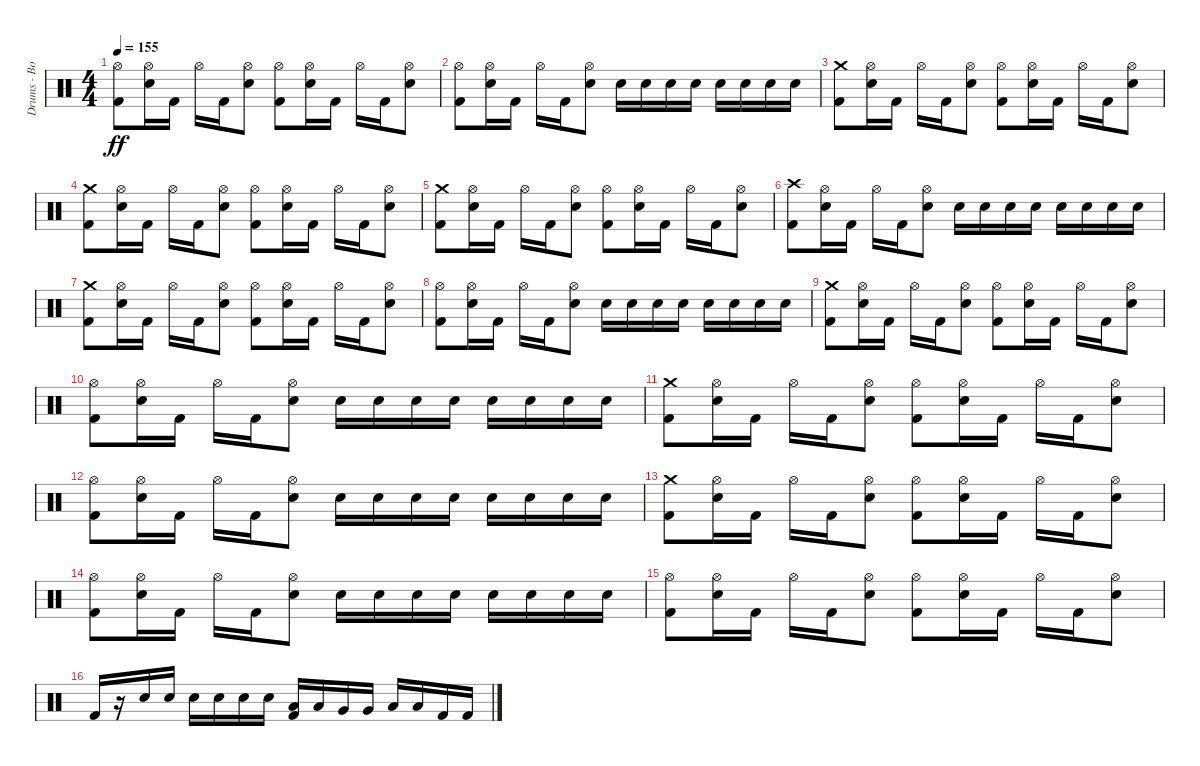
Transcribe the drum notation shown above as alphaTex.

\track ("Drums - Bobby Schayer" "Drums - Bo") {instrument percussion}
\staff {score}
\articulation defaults
\ts (4 4)
\tempo 155
\clef neutral
\ks c
("Kick (hit) 2" "Hi-Hat (open)").8{dy ff} ("Electric Snare (hit)" "Hi-Hat (open)").16 "Kick (hit) 2".16 "Hi-Hat (open)".16 "Kick (hit) 2".16 ("Electric Snare (hit)" "Hi-Hat (open)").8 ("Kick (hit) 2" "Hi-Hat (open)").8 ("Electric Snare (hit)" "Hi-Hat (open)").16 "Kick (hit) 2".16 "Hi-Hat (open)".16 "Kick (hit) 2".16 ("Electric Snare (hit)" "Hi-Hat (open)").8 |
("Kick (hit) 2" "Hi-Hat (open)").8 ("Electric Snare (hit)" "Hi-Hat (open)").16 "Kick (hit) 2".16 "Hi-Hat (open)".16 "Kick (hit) 2".16 ("Electric Snare (hit)" "Hi-Hat (open)").8 "Electric Snare (hit)".16 "Electric Snare (hit)".16 "Electric Snare (hit)".16 "Electric Snare (hit)".16 "Electric Snare (hit)".16 "Electric Snare (hit)".16 "Electric Snare (hit)".16 "Electric Snare (hit)".16 |
("Kick (hit) 2" "Crash medium (hit)").8 ("Electric Snare (hit)" "Hi-Hat (open)").16 "Kick (hit) 2".16 "Hi-Hat (open)".16 "Kick (hit) 2".16 ("Electric Snare (hit)" "Hi-Hat (open)").8 ("Kick (hit) 2" "Hi-Hat (open)").8 ("Electric Snare (hit)" "Hi-Hat (open)").16 "Kick (hit) 2".16 "Hi-Hat (open)".16 "Kick (hit) 2".16 ("Electric Snare (hit)" "Hi-Hat (open)").8 |
("Kick (hit) 2" "Crash medium (hit)").8 ("Electric Snare (hit)" "Hi-Hat (open)").16 "Kick (hit) 2".16 "Hi-Hat (open)".16 "Kick (hit) 2".16 ("Electric Snare (hit)" "Hi-Hat (open)").8 ("Kick (hit) 2" "Hi-Hat (open)").8 ("Electric Snare (hit)" "Hi-Hat (open)").16 "Kick (hit) 2".16 "Hi-Hat (open)".16 "Kick (hit) 2".16 ("Electric Snare (hit)" "Hi-Hat (open)").8 |
("Kick (hit) 2" "Crash medium (hit)").8 ("Electric Snare (hit)" "Hi-Hat (open)").16 "Kick (hit) 2".16 "Hi-Hat (open)".16 "Kick (hit) 2".16 ("Electric Snare (hit)" "Hi-Hat (open)").8 ("Kick (hit) 2" "Hi-Hat (open)").8 ("Electric Snare (hit)" "Hi-Hat (open)").16 "Kick (hit) 2".16 "Hi-Hat (open)".16 "Kick (hit) 2".16 ("Electric Snare (hit)" "Hi-Hat (open)").8 |
("Kick (hit) 2" "Crash high (hit)").8 ("Electric Snare (hit)" "Hi-Hat (open)").16 "Kick (hit) 2".16 "Hi-Hat (open)".16 "Kick (hit) 2".16 ("Electric Snare (hit)" "Hi-Hat (open)").8 "Electric Snare (hit)".16 "Electric Snare (hit)".16 "Electric Snare (hit)".16 "Electric Snare (hit)".16 "Electric Snare (hit)".16 "Electric Snare (hit)".16 "Electric Snare (hit)".16 "Electric Snare (hit)".16 |
("Kick (hit) 2" "Crash medium (hit)").8 ("Electric Snare (hit)" "Hi-Hat (open)").16 "Kick (hit) 2".16 "Hi-Hat (open)".16 "Kick (hit) 2".16 ("Electric Snare (hit)" "Hi-Hat (open)").8 ("Kick (hit) 2" "Hi-Hat (open)").8 ("Electric Snare (hit)" "Hi-Hat (open)").16 "Kick (hit) 2".16 "Hi-Hat (open)".16 "Kick (hit) 2".16 ("Electric Snare (hit)" "Hi-Hat (open)").8 |
("Kick (hit) 2" "Hi-Hat (open)").8 ("Electric Snare (hit)" "Hi-Hat (open)").16 "Kick (hit) 2".16 "Hi-Hat (open)".16 "Kick (hit) 2".16 ("Electric Snare (hit)" "Hi-Hat (open)").8 "Electric Snare (hit)".16 "Electric Snare (hit)".16 "Electric Snare (hit)".16 "Electric Snare (hit)".16 "Electric Snare (hit)".16 "Electric Snare (hit)".16 "Electric Snare (hit)".16 "Electric Snare (hit)".16 |
("Kick (hit) 2" "Crash medium (hit)").8 ("Electric Snare (hit)" "Hi-Hat (open)").16 "Kick (hit) 2".16 "Hi-Hat (open)".16 "Kick (hit) 2".16 ("Electric Snare (hit)" "Hi-Hat (open)").8 ("Kick (hit) 2" "Hi-Hat (open)").8 ("Electric Snare (hit)" "Hi-Hat (open)").16 "Kick (hit) 2".16 "Hi-Hat (open)".16 "Kick (hit) 2".16 ("Electric Snare (hit)" "Hi-Hat (open)").8 |
("Kick (hit) 2" "Hi-Hat (open)").8 ("Electric Snare (hit)" "Hi-Hat (open)").16 "Kick (hit) 2".16 "Hi-Hat (open)".16 "Kick (hit) 2".16 ("Electric Snare (hit)" "Hi-Hat (open)").8 "Electric Snare (hit)".16 "Electric Snare (hit)".16 "Electric Snare (hit)".16 "Electric Snare (hit)".16 "Electric Snare (hit)".16 "Electric Snare (hit)".16 "Electric Snare (hit)".16 "Electric Snare (hit)".16 |
("Kick (hit) 2" "Crash medium (hit)").8 ("Electric Snare (hit)" "Hi-Hat (open)").16 "Kick (hit) 2".16 "Hi-Hat (open)".16 "Kick (hit) 2".16 ("Electric Snare (hit)" "Hi-Hat (open)").8 ("Kick (hit) 2" "Hi-Hat (open)").8 ("Electric Snare (hit)" "Hi-Hat (open)").16 "Kick (hit) 2".16 "Hi-Hat (open)".16 "Kick (hit) 2".16 ("Electric Snare (hit)" "Hi-Hat (open)").8 |
("Kick (hit) 2" "Hi-Hat (open)").8 ("Electric Snare (hit)" "Hi-Hat (open)").16 "Kick (hit) 2".16 "Hi-Hat (open)".16 "Kick (hit) 2".16 ("Electric Snare (hit)" "Hi-Hat (open)").8 "Electric Snare (hit)".16 "Electric Snare (hit)".16 "Electric Snare (hit)".16 "Electric Snare (hit)".16 "Electric Snare (hit)".16 "Electric Snare (hit)".16 "Electric Snare (hit)".16 "Electric Snare (hit)".16 |
("Kick (hit) 2" "Crash medium (hit)").8 ("Electric Snare (hit)" "Hi-Hat (open)").16 "Kick (hit) 2".16 "Hi-Hat (open)".16 "Kick (hit) 2".16 ("Electric Snare (hit)" "Hi-Hat (open)").8 ("Kick (hit) 2" "Hi-Hat (open)").8 ("Electric Snare (hit)" "Hi-Hat (open)").16 "Kick (hit) 2".16 "Hi-Hat (open)".16 "Kick (hit) 2".16 ("Electric Snare (hit)" "Hi-Hat (open)").8 |
("Kick (hit) 2" "Hi-Hat (open)").8 ("Electric Snare (hit)" "Hi-Hat (open)").16 "Kick (hit) 2".16 "Hi-Hat (open)".16 "Kick (hit) 2".16 ("Electric Snare (hit)" "Hi-Hat (open)").8 "Electric Snare (hit)".16 "Electric Snare (hit)".16 "Electric Snare (hit)".16 "Electric Snare (hit)".16 "Electric Snare (hit)".16 "Electric Snare (hit)".16 "Electric Snare (hit)".16 "Electric Snare (hit)".16 |
("Kick (hit) 2" "Hi-Hat (open)").8 ("Electric Snare (hit)" "Hi-Hat (open)").16 "Kick (hit) 2".16 "Hi-Hat (open)".16 "Kick (hit) 2".16 ("Electric Snare (hit)" "Hi-Hat (open)").8 ("Kick (hit) 2" "Hi-Hat (open)").8 ("Electric Snare (hit)" "Hi-Hat (open)").16 "Kick (hit) 2".16 "Hi-Hat (open)".16 "Kick (hit) 2".16 ("Electric Snare (hit)" "Hi-Hat (open)").8 |
"Kick (hit) 2".16 r.16 "Electric Snare (hit)".16 "Electric Snare (hit)".16 "Electric Snare (hit)".16 "Electric Snare (hit)".16 "Electric Snare (hit)".16 "Electric Snare (hit)".16 ("Low Tom (hit)" "Kick (hit) 2").16 "Low Tom (hit)".16 "Very Low Tom (hit)".16 "Very Low Tom (hit)".16 "Low Floor Tom (hit)".16 "Low Floor Tom (hit)".16 "Kick (hit) 2".16 "Kick (hit) 2".16
